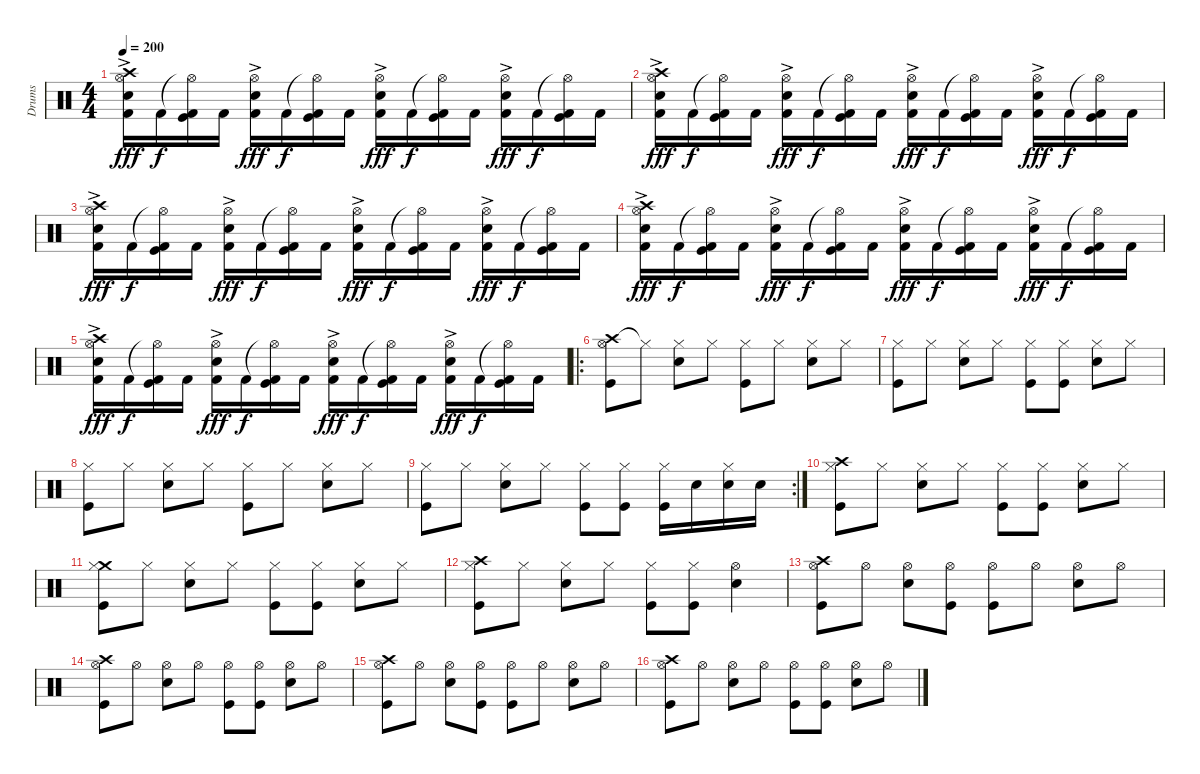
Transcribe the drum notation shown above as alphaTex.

\track ("Drums" "Drums") {instrument percussion}
\staff {score}
\articulation defaults
\ts (4 4)
\tempo 200
\clef neutral
\ks c
("Crash high (hit)"{ac} "Hi-Hat (open)"{ac} "Snare (hit) 2" "Kick (hit) 2").16{dy fff} "Kick (hit) 2".16{dy f} ("Hi-Hat (open)"{t} "Kick (hit)" "Kick (hit) 2").16 "Kick (hit) 2".16 ("Hi-Hat (open)"{ac} "Snare (hit) 2" "Kick (hit) 2").16{dy fff} "Kick (hit) 2".16{dy f} ("Hi-Hat (open)"{t} "Kick (hit)" "Kick (hit) 2").16 "Kick (hit) 2".16 ("Hi-Hat (open)"{ac} "Snare (hit) 2" "Kick (hit) 2").16{dy fff} "Kick (hit) 2".16{dy f} ("Hi-Hat (open)"{t} "Kick (hit)" "Kick (hit) 2").16 "Kick (hit) 2".16 ("Hi-Hat (open)"{ac} "Snare (hit) 2" "Kick (hit) 2").16{dy fff} "Kick (hit) 2".16{dy f} ("Hi-Hat (open)"{t} "Kick (hit)" "Kick (hit) 2").16 "Kick (hit) 2".16 |
("Crash high (hit)"{ac} "Hi-Hat (open)"{ac} "Snare (hit) 2" "Kick (hit) 2").16{dy fff} "Kick (hit) 2".16{dy f} ("Hi-Hat (open)"{t} "Kick (hit)" "Kick (hit) 2").16 "Kick (hit) 2".16 ("Hi-Hat (open)"{ac} "Snare (hit) 2" "Kick (hit) 2").16{dy fff} "Kick (hit) 2".16{dy f} ("Hi-Hat (open)"{t} "Kick (hit)" "Kick (hit) 2").16 "Kick (hit) 2".16 ("Hi-Hat (open)"{ac} "Snare (hit) 2" "Kick (hit) 2").16{dy fff} "Kick (hit) 2".16{dy f} ("Hi-Hat (open)"{t} "Kick (hit)" "Kick (hit) 2").16 "Kick (hit) 2".16 ("Hi-Hat (open)"{ac} "Snare (hit) 2" "Kick (hit) 2").16{dy fff} "Kick (hit) 2".16{dy f} ("Hi-Hat (open)"{t} "Kick (hit)" "Kick (hit) 2").16 "Kick (hit) 2".16 |
("Crash high (hit)"{ac} "Hi-Hat (open)"{ac} "Snare (hit) 2" "Kick (hit) 2").16{dy fff} "Kick (hit) 2".16{dy f} ("Hi-Hat (open)"{t} "Kick (hit)" "Kick (hit) 2").16 "Kick (hit) 2".16 ("Hi-Hat (open)"{ac} "Snare (hit) 2" "Kick (hit) 2").16{dy fff} "Kick (hit) 2".16{dy f} ("Hi-Hat (open)"{t} "Kick (hit)" "Kick (hit) 2").16 "Kick (hit) 2".16 ("Hi-Hat (open)"{ac} "Snare (hit) 2" "Kick (hit) 2").16{dy fff} "Kick (hit) 2".16{dy f} ("Hi-Hat (open)"{t} "Kick (hit)" "Kick (hit) 2").16 "Kick (hit) 2".16 ("Hi-Hat (open)"{ac} "Snare (hit) 2" "Kick (hit) 2").16{dy fff} "Kick (hit) 2".16{dy f} ("Hi-Hat (open)"{t} "Kick (hit)" "Kick (hit) 2").16 "Kick (hit) 2".16 |
("Crash high (hit)"{ac} "Hi-Hat (open)"{ac} "Snare (hit) 2" "Kick (hit) 2").16{dy fff} "Kick (hit) 2".16{dy f} ("Hi-Hat (open)"{t} "Kick (hit)" "Kick (hit) 2").16 "Kick (hit) 2".16 ("Hi-Hat (open)"{ac} "Snare (hit) 2" "Kick (hit) 2").16{dy fff} "Kick (hit) 2".16{dy f} ("Hi-Hat (open)"{t} "Kick (hit)" "Kick (hit) 2").16 "Kick (hit) 2".16 ("Hi-Hat (open)"{ac} "Snare (hit) 2" "Kick (hit) 2").16{dy fff} "Kick (hit) 2".16{dy f} ("Hi-Hat (open)"{t} "Kick (hit)" "Kick (hit) 2").16 "Kick (hit) 2".16 ("Hi-Hat (open)"{ac} "Snare (hit) 2" "Kick (hit) 2").16{dy fff} "Kick (hit) 2".16{dy f} ("Hi-Hat (open)"{t} "Kick (hit)" "Kick (hit) 2").16 "Kick (hit) 2".16 |
("Crash high (hit)"{ac} "Hi-Hat (open)"{ac} "Snare (hit) 2" "Kick (hit) 2").16{dy fff} "Kick (hit) 2".16{dy f} ("Hi-Hat (open)"{t} "Kick (hit)" "Kick (hit) 2").16 "Kick (hit) 2".16 ("Hi-Hat (open)"{ac} "Snare (hit) 2" "Kick (hit) 2").16{dy fff} "Kick (hit) 2".16{dy f} ("Hi-Hat (open)"{t} "Kick (hit)" "Kick (hit) 2").16 "Kick (hit) 2".16 ("Hi-Hat (open)"{ac} "Snare (hit) 2" "Kick (hit) 2").16{dy fff} "Kick (hit) 2".16{dy f} ("Hi-Hat (open)"{t} "Kick (hit)" "Kick (hit) 2").16 "Kick (hit) 2".16 ("Hi-Hat (open)"{ac} "Snare (hit) 2" "Kick (hit) 2").16{dy fff} "Kick (hit) 2".16{dy f} ("Hi-Hat (open)"{t} "Kick (hit)" "Kick (hit) 2").16 "Kick (hit) 2".16 |
\ro
("Crash high (hit)" "Hi-Hat (open)" "Kick (hit)").8 "Hi-Hat (closed)"{t}.8 ("Hi-Hat (closed)" "Snare (hit) 2").8 "Hi-Hat (closed)".8 ("Hi-Hat (closed)" "Kick (hit)").8 "Hi-Hat (closed)".8 ("Hi-Hat (closed)" "Snare (hit) 2").8 "Hi-Hat (closed)".8 |
("Hi-Hat (closed)" "Kick (hit)").8 "Hi-Hat (closed)".8 ("Hi-Hat (closed)" "Snare (hit) 2").8 "Hi-Hat (closed)".8 ("Hi-Hat (closed)" "Kick (hit)").8 ("Hi-Hat (closed)" "Kick (hit)").8 ("Hi-Hat (closed)" "Snare (hit) 2").8 "Hi-Hat (closed)".8 |
("Hi-Hat (closed)" "Kick (hit)").8 "Hi-Hat (closed)".8 ("Hi-Hat (closed)" "Snare (hit) 2").8 "Hi-Hat (closed)".8 ("Hi-Hat (closed)" "Kick (hit)").8 "Hi-Hat (closed)".8 ("Hi-Hat (closed)" "Snare (hit) 2").8 "Hi-Hat (closed)".8 |
\rc 2
("Hi-Hat (closed)" "Kick (hit)").8 "Hi-Hat (closed)".8 ("Hi-Hat (closed)" "Snare (hit) 2").8 "Hi-Hat (closed)".8 ("Hi-Hat (closed)" "Kick (hit)").8 ("Hi-Hat (closed)" "Kick (hit)").8 ("Hi-Hat (closed)" "Kick (hit)").16 "Snare (hit) 2".16 ("Hi-Hat (closed)" "Snare (hit) 2").16 "Snare (hit) 2".16 |
("Crash high (hit)" "Hi-Hat (closed)" "Kick (hit)").8 "Hi-Hat (closed)".8 ("Hi-Hat (closed)" "Snare (hit) 2").8 "Hi-Hat (closed)".8 ("Hi-Hat (closed)" "Kick (hit)").8 ("Hi-Hat (closed)" "Kick (hit)").8 ("Hi-Hat (closed)" "Snare (hit) 2").8 "Hi-Hat (closed)".8 |
("Crash medium (hit)" "Hi-Hat (closed)" "Kick (hit)").8 "Hi-Hat (closed)".8 ("Hi-Hat (closed)" "Snare (hit) 2").8 "Hi-Hat (closed)".8 ("Hi-Hat (closed)" "Kick (hit)").8 ("Hi-Hat (closed)" "Kick (hit)").8 ("Hi-Hat (closed)" "Snare (hit) 2").8 "Hi-Hat (closed)".8 |
("Crash high (hit)" "Hi-Hat (closed)" "Kick (hit)").8 "Hi-Hat (closed)".8 ("Hi-Hat (closed)" "Snare (hit) 2").8 "Hi-Hat (closed)".8 ("Hi-Hat (closed)" "Kick (hit)").8 ("Hi-Hat (closed)" "Kick (hit)").8 ("Hi-Hat (open)" "Snare (hit) 2").4 |
("Crash high (hit)" "Hi-Hat (open)" "Kick (hit)").8 "Hi-Hat (open)".8 ("Hi-Hat (open)" "Snare (hit) 2").8 ("Hi-Hat (open)" "Kick (hit)").8 ("Hi-Hat (open)" "Kick (hit)").8 "Hi-Hat (open)".8 ("Hi-Hat (open)" "Snare (hit) 2").8 "Hi-Hat (open)".8 |
("Crash high (hit)" "Hi-Hat (open)" "Kick (hit)").8 "Hi-Hat (open)".8 ("Hi-Hat (open)" "Snare (hit) 2").8 "Hi-Hat (open)".8 ("Hi-Hat (open)" "Kick (hit)").8 ("Hi-Hat (open)" "Kick (hit)").8 ("Hi-Hat (open)" "Snare (hit) 2").8 "Hi-Hat (open)".8 |
("Crash high (hit)" "Hi-Hat (open)" "Kick (hit)").8 "Hi-Hat (open)".8 ("Hi-Hat (open)" "Snare (hit) 2").8 ("Hi-Hat (open)" "Kick (hit)").8 ("Hi-Hat (open)" "Kick (hit)").8 "Hi-Hat (open)".8 ("Hi-Hat (open)" "Snare (hit) 2").8 "Hi-Hat (open)".8 |
("Crash high (hit)" "Hi-Hat (open)" "Kick (hit)").8 "Hi-Hat (open)".8 ("Hi-Hat (open)" "Snare (hit) 2").8 "Hi-Hat (open)".8 ("Hi-Hat (open)" "Kick (hit)").8 ("Hi-Hat (open)" "Kick (hit)").8 ("Hi-Hat (open)" "Snare (hit) 2").8 "Hi-Hat (open)".8
